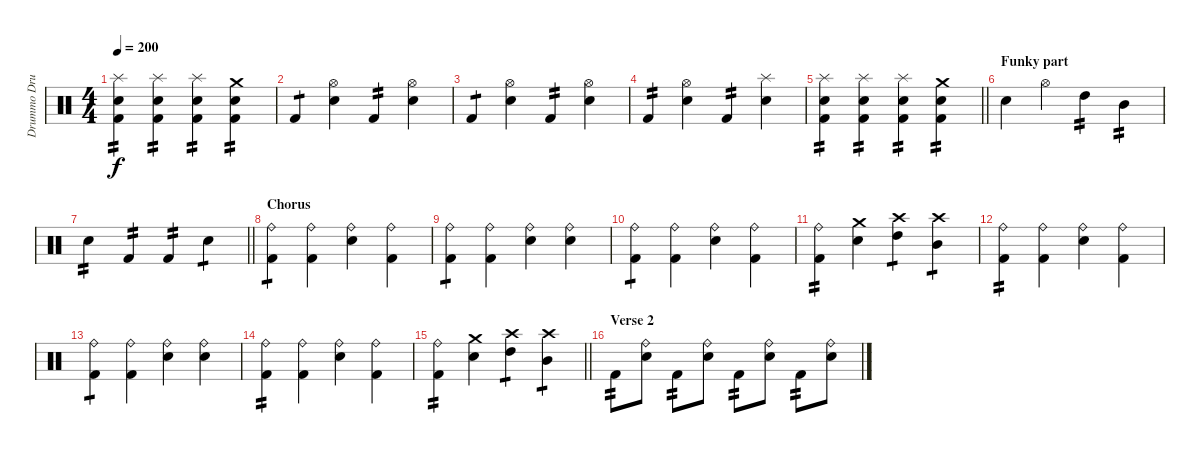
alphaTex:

\track ("Drummo Drummer" "Drummo Dru") {instrument percussion}
\staff {score}
\articulation defaults
\ts (4 4)
\tempo 200
\clef neutral
\ks c
("Splash (hit)" "Electric Snare (hit)" "Kick (hit) 2").4{tp 2 dy f} ("Splash (hit)" "Electric Snare (hit)" "Kick (hit) 2").4{tp 2} ("Splash (hit)" "Electric Snare (hit)" "Kick (hit) 2").4{tp 2} ("Crash medium (hit)" "Electric Snare (hit)" "Kick (hit) 2").4{tp 2} |
"Kick (hit) 2".4{tp 1} ("Hi-Hat (open)" "Electric Snare (hit)").4 "Kick (hit) 2".4{tp 2} ("Hi-Hat (open)" "Electric Snare (hit)").4 |
"Kick (hit) 2".4{tp 1} ("Hi-Hat (open)" "Electric Snare (hit)").4 "Kick (hit) 2".4{tp 2} ("Hi-Hat (open)" "Electric Snare (hit)").4 |
"Kick (hit) 2".4{tp 2} ("Hi-Hat (open)" "Electric Snare (hit)").4 "Kick (hit) 2".4{tp 2} ("Splash (hit)" "Electric Snare (hit)").4 |
\barLineRight lightlight
("Splash (hit)" "Electric Snare (hit)" "Kick (hit) 2").4{tp 2} ("Splash (hit)" "Electric Snare (hit)" "Kick (hit) 2").4{tp 2} ("Splash (hit)" "Electric Snare (hit)" "Kick (hit) 2").4{tp 2} ("Crash medium (hit)" "Electric Snare (hit)" "Kick (hit) 2").4{tp 2} |
\section ("" "Funky part")
"Electric Snare (hit)".4 "Hi-Hat (open)".4 "High Tom (hit)".4{tp 2} "Mid Tom (hit)".4{tp 2} |
\barLineRight lightlight "Electric Snare (hit)".4{tp 2} "Kick (hit) 2".4{tp 2} "Kick (hit) 2".4{tp 2} "Electric Snare (hit)".4{tp 1}
|
\section ("" "Chorus")
("Ride (bell)" "Kick (hit) 2").4{tp 1} ("Ride (bell)" "Kick (hit) 2").4 ("Ride (bell)" "Electric Snare (hit)").4 ("Ride (bell)" "Kick (hit) 2").4 |
("Ride (bell)" "Kick (hit) 2").4{tp 1} ("Ride (bell)" "Kick (hit) 2").4 ("Ride (bell)" "Electric Snare (hit)").4 ("Ride (bell)" "Electric Snare (hit)").4 |
("Ride (bell)" "Kick (hit) 2").4{tp 1} ("Ride (bell)" "Kick (hit) 2").4 ("Ride (bell)" "Electric Snare (hit)").4 ("Ride (bell)" "Kick (hit) 2").4 |
("Ride (bell)" "Kick (hit) 2").4{tp 2} ("Crash medium (hit)" "Electric Snare (hit)").4 ("Crash high (hit)" "High Tom (hit)").4{tp 1} ("Crash high (hit)" "Mid Tom (hit)").4{tp 1} |
("Ride (bell)" "Kick (hit) 2").4{tp 2} ("Ride (bell)" "Kick (hit) 2").4 ("Ride (bell)" "Electric Snare (hit)").4 ("Ride (bell)" "Kick (hit) 2").4 |
("Ride (bell)" "Kick (hit) 2").4{tp 1} ("Ride (bell)" "Kick (hit) 2").4 ("Ride (bell)" "Electric Snare (hit)").4 ("Ride (bell)" "Electric Snare (hit)").4 |
("Ride (bell)" "Kick (hit) 2").4{tp 2} ("Ride (bell)" "Kick (hit) 2").4 ("Ride (bell)" "Electric Snare (hit)").4 ("Ride (bell)" "Kick (hit) 2").4 |
\barLineRight lightlight
("Ride (bell)" "Kick (hit) 2").4{tp 2} ("Crash medium (hit)" "Electric Snare (hit)").4 ("Crash high (hit)" "High Tom (hit)").4{tp 1} ("Crash high (hit)" "Mid Tom (hit)").4{tp 1} |
\section ("" "Verse 2")
"Kick (hit) 2".8{tp 2} ("Ride (bell)" "Electric Snare (hit)").8 "Kick (hit) 2".8{tp 2} ("Ride (bell)" "Electric Snare (hit)").8 "Kick (hit) 2".8{tp 2} ("Ride (bell)" "Electric Snare (hit)").8 "Kick (hit) 2".8{tp 2} ("Ride (bell)" "Electric Snare (hit)").8
